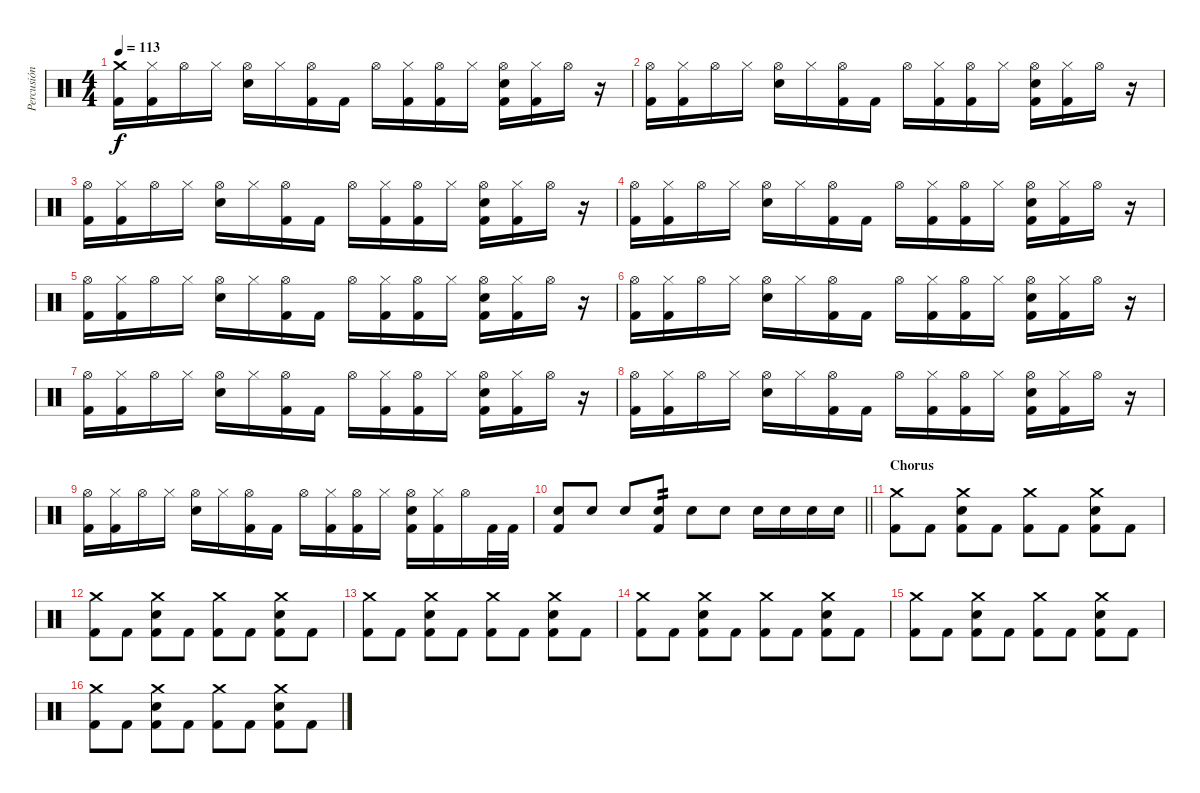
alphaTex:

\track ("Percusión" "Percusión") {instrument percussion}
\staff {score}
\articulation defaults
\ts (4 4)
\tempo 113
\clef neutral
\ks c
("Crash medium (hit)" "Kick (hit) 2").16{dy f} ("Hi-Hat (closed)" "Kick (hit) 2").16 "Hi-Hat (open)".16 "Hi-Hat (closed)".16 ("Hi-Hat (open)" "Electric Snare (hit)").16 "Hi-Hat (closed)".16 ("Hi-Hat (open)" "Kick (hit) 2").16 "Kick (hit) 2".16 "Hi-Hat (open)".16 ("Hi-Hat (closed)" "Kick (hit) 2").16 ("Hi-Hat (open)" "Kick (hit) 2").16 "Hi-Hat (closed)".16 ("Hi-Hat (open)" "Electric Snare (hit)" "Kick (hit) 2").16 ("Hi-Hat (closed)" "Kick (hit) 2").16 "Hi-Hat (open)".16 r.16 |
("Hi-Hat (open)" "Kick (hit) 2").16 ("Hi-Hat (closed)" "Kick (hit) 2").16 "Hi-Hat (open)".16 "Hi-Hat (closed)".16 ("Hi-Hat (open)" "Electric Snare (hit)").16 "Hi-Hat (closed)".16 ("Hi-Hat (open)" "Kick (hit) 2").16 "Kick (hit) 2".16 "Hi-Hat (open)".16 ("Hi-Hat (closed)" "Kick (hit) 2").16 ("Hi-Hat (open)" "Kick (hit) 2").16 "Hi-Hat (closed)".16 ("Hi-Hat (open)" "Electric Snare (hit)" "Kick (hit) 2").16 ("Hi-Hat (closed)" "Kick (hit) 2").16 "Hi-Hat (open)".16 r.16 |
("Hi-Hat (open)" "Kick (hit) 2").16 ("Hi-Hat (closed)" "Kick (hit) 2").16 "Hi-Hat (open)".16 "Hi-Hat (closed)".16 ("Hi-Hat (open)" "Electric Snare (hit)").16 "Hi-Hat (closed)".16 ("Hi-Hat (open)" "Kick (hit) 2").16 "Kick (hit) 2".16 "Hi-Hat (open)".16 ("Hi-Hat (closed)" "Kick (hit) 2").16 ("Hi-Hat (open)" "Kick (hit) 2").16 "Hi-Hat (closed)".16 ("Hi-Hat (open)" "Electric Snare (hit)" "Kick (hit) 2").16 ("Hi-Hat (closed)" "Kick (hit) 2").16 "Hi-Hat (open)".16 r.16 |
("Hi-Hat (open)" "Kick (hit) 2").16 ("Hi-Hat (closed)" "Kick (hit) 2").16 "Hi-Hat (open)".16 "Hi-Hat (closed)".16 ("Hi-Hat (open)" "Electric Snare (hit)").16 "Hi-Hat (closed)".16 ("Hi-Hat (open)" "Kick (hit) 2").16 "Kick (hit) 2".16 "Hi-Hat (open)".16 ("Hi-Hat (closed)" "Kick (hit) 2").16 ("Hi-Hat (open)" "Kick (hit) 2").16 "Hi-Hat (closed)".16 ("Hi-Hat (open)" "Electric Snare (hit)" "Kick (hit) 2").16 ("Hi-Hat (closed)" "Kick (hit) 2").16 "Hi-Hat (open)".16 r.16 |
("Hi-Hat (open)" "Kick (hit) 2").16 ("Hi-Hat (closed)" "Kick (hit) 2").16 "Hi-Hat (open)".16 "Hi-Hat (closed)".16 ("Hi-Hat (open)" "Electric Snare (hit)").16 "Hi-Hat (closed)".16 ("Hi-Hat (open)" "Kick (hit) 2").16 "Kick (hit) 2".16 "Hi-Hat (open)".16 ("Hi-Hat (closed)" "Kick (hit) 2").16 ("Hi-Hat (open)" "Kick (hit) 2").16 "Hi-Hat (closed)".16 ("Hi-Hat (open)" "Electric Snare (hit)" "Kick (hit) 2").16 ("Hi-Hat (closed)" "Kick (hit) 2").16 "Hi-Hat (open)".16 r.16 |
("Hi-Hat (open)" "Kick (hit) 2").16 ("Hi-Hat (closed)" "Kick (hit) 2").16 "Hi-Hat (open)".16 "Hi-Hat (closed)".16 ("Hi-Hat (open)" "Electric Snare (hit)").16 "Hi-Hat (closed)".16 ("Hi-Hat (open)" "Kick (hit) 2").16 "Kick (hit) 2".16 "Hi-Hat (open)".16 ("Hi-Hat (closed)" "Kick (hit) 2").16 ("Hi-Hat (open)" "Kick (hit) 2").16 "Hi-Hat (closed)".16 ("Hi-Hat (open)" "Electric Snare (hit)" "Kick (hit) 2").16 ("Hi-Hat (closed)" "Kick (hit) 2").16 "Hi-Hat (open)".16 r.16 |
("Hi-Hat (open)" "Kick (hit) 2").16 ("Hi-Hat (closed)" "Kick (hit) 2").16 "Hi-Hat (open)".16 "Hi-Hat (closed)".16 ("Hi-Hat (open)" "Electric Snare (hit)").16 "Hi-Hat (closed)".16 ("Hi-Hat (open)" "Kick (hit) 2").16 "Kick (hit) 2".16 "Hi-Hat (open)".16 ("Hi-Hat (closed)" "Kick (hit) 2").16 ("Hi-Hat (open)" "Kick (hit) 2").16 "Hi-Hat (closed)".16 ("Hi-Hat (open)" "Electric Snare (hit)" "Kick (hit) 2").16 ("Hi-Hat (closed)" "Kick (hit) 2").16 "Hi-Hat (open)".16 r.16 |
("Hi-Hat (open)" "Kick (hit) 2").16 ("Hi-Hat (closed)" "Kick (hit) 2").16 "Hi-Hat (open)".16 "Hi-Hat (closed)".16 ("Hi-Hat (open)" "Electric Snare (hit)").16 "Hi-Hat (closed)".16 ("Hi-Hat (open)" "Kick (hit) 2").16 "Kick (hit) 2".16 "Hi-Hat (open)".16 ("Hi-Hat (closed)" "Kick (hit) 2").16 ("Hi-Hat (open)" "Kick (hit) 2").16 "Hi-Hat (closed)".16 ("Hi-Hat (open)" "Electric Snare (hit)" "Kick (hit) 2").16 ("Hi-Hat (closed)" "Kick (hit) 2").16 "Hi-Hat (open)".16 r.16 |
("Hi-Hat (open)" "Kick (hit) 2").16 ("Hi-Hat (closed)" "Kick (hit) 2").16 "Hi-Hat (open)".16 "Hi-Hat (closed)".16 ("Hi-Hat (open)" "Electric Snare (hit)").16 "Hi-Hat (closed)".16 ("Hi-Hat (open)" "Kick (hit) 2").16 "Kick (hit) 2".16 "Hi-Hat (open)".16 ("Hi-Hat (closed)" "Kick (hit) 2").16 ("Hi-Hat (open)" "Kick (hit) 2").16 "Hi-Hat (closed)".16 ("Hi-Hat (open)" "Electric Snare (hit)" "Kick (hit) 2").16 ("Hi-Hat (closed)" "Kick (hit) 2").16 "Hi-Hat (open)".16 "Kick (hit) 2".32 "Kick (hit) 2".32 |
\barLineRight lightlight
("Electric Snare (hit)" "Kick (hit) 2").8 "Electric Snare (hit)".8 "Electric Snare (hit)".8 ("Electric Snare (hit)" "Kick (hit) 2").8{tp 2} "Electric Snare (hit)".8 "Electric Snare (hit)".8 "Electric Snare (hit)".16 "Electric Snare (hit)".16 "Electric Snare (hit)".16 "Electric Snare (hit)".16 |
\section ("" "Chorus")
("Crash medium (hit)" "Kick (hit) 2").8 "Kick (hit) 2".8 ("Crash medium (hit)" "Electric Snare (hit)" "Kick (hit) 2").8 "Kick (hit) 2".8 ("Crash medium (hit)" "Kick (hit) 2").8 "Kick (hit) 2".8 ("Crash medium (hit)" "Electric Snare (hit)" "Kick (hit) 2").8 "Kick (hit) 2".8 |
("Crash medium (hit)" "Kick (hit) 2").8 "Kick (hit) 2".8 ("Crash medium (hit)" "Electric Snare (hit)" "Kick (hit) 2").8 "Kick (hit) 2".8 ("Crash medium (hit)" "Kick (hit) 2").8 "Kick (hit) 2".8 ("Crash medium (hit)" "Electric Snare (hit)" "Kick (hit) 2").8 "Kick (hit) 2".8 |
("Crash medium (hit)" "Kick (hit) 2").8 "Kick (hit) 2".8 ("Crash medium (hit)" "Electric Snare (hit)" "Kick (hit) 2").8 "Kick (hit) 2".8 ("Crash medium (hit)" "Kick (hit) 2").8 "Kick (hit) 2".8 ("Crash medium (hit)" "Electric Snare (hit)" "Kick (hit) 2").8 "Kick (hit) 2".8 |
("Crash medium (hit)" "Kick (hit) 2").8 "Kick (hit) 2".8 ("Crash medium (hit)" "Electric Snare (hit)" "Kick (hit) 2").8 "Kick (hit) 2".8 ("Crash medium (hit)" "Kick (hit) 2").8 "Kick (hit) 2".8 ("Crash medium (hit)" "Electric Snare (hit)" "Kick (hit) 2").8 "Kick (hit) 2".8 |
("Crash medium (hit)" "Kick (hit) 2").8 "Kick (hit) 2".8 ("Crash medium (hit)" "Electric Snare (hit)" "Kick (hit) 2").8 "Kick (hit) 2".8 ("Crash medium (hit)" "Kick (hit) 2").8 "Kick (hit) 2".8 ("Crash medium (hit)" "Electric Snare (hit)" "Kick (hit) 2").8 "Kick (hit) 2".8 |
("Crash medium (hit)" "Kick (hit) 2").8 "Kick (hit) 2".8 ("Crash medium (hit)" "Electric Snare (hit)" "Kick (hit) 2").8 "Kick (hit) 2".8 ("Crash medium (hit)" "Kick (hit) 2").8 "Kick (hit) 2".8 ("Crash medium (hit)" "Electric Snare (hit)" "Kick (hit) 2").8 "Kick (hit) 2".8
